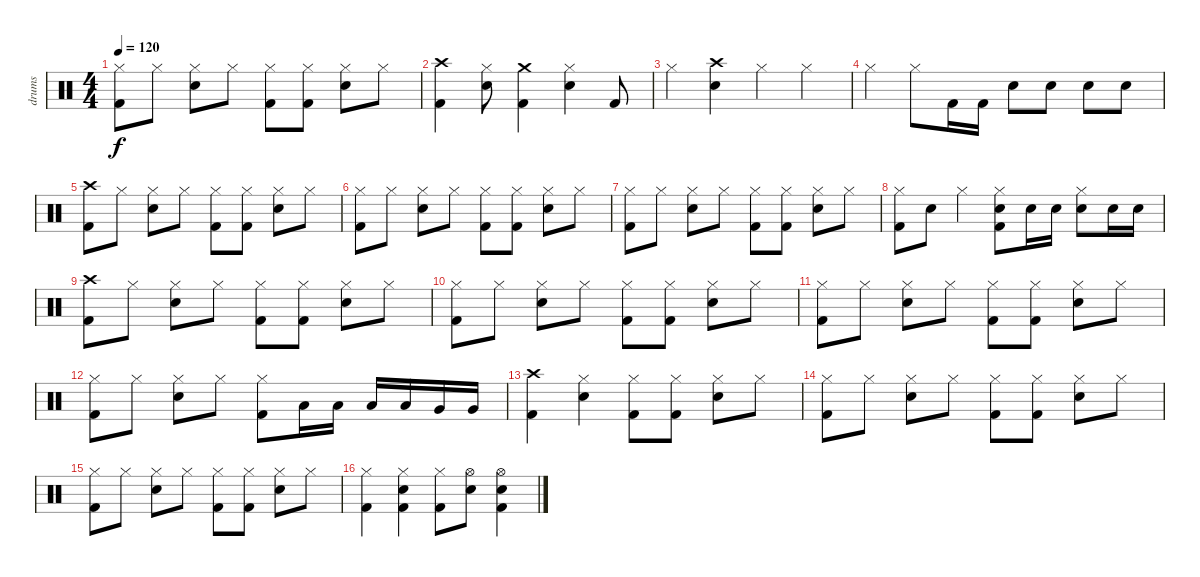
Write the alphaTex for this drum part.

\track ("drums" "drums") {instrument percussion}
\staff {score}
\articulation defaults
\ts (4 4)
\tempo 120
\clef neutral
\ks c
("Hi-Hat (closed)" "Kick (hit) 2").8{dy f} "Hi-Hat (closed)".8 ("Hi-Hat (closed)" "Electric Snare (hit)").8 "Hi-Hat (closed)".8 ("Hi-Hat (closed)" "Kick (hit) 2").8 ("Hi-Hat (closed)" "Kick (hit) 2").8 ("Hi-Hat (closed)" "Electric Snare (hit)").8 "Hi-Hat (closed)".8 |
("Crash high (hit)" "Kick (hit) 2").4 ("Hi-Hat (closed)" "Electric Snare (hit)").8 ("Crash medium (hit)" "Kick (hit) 2").4 ("Hi-Hat (closed)" "Electric Snare (hit)").4 "Kick (hit) 2".8 |
"Hi-Hat (closed)".4 ("Crash high (hit)" "Electric Snare (hit)").4 "Hi-Hat (closed)".4 "Hi-Hat (closed)".4 |
"Hi-Hat (closed)".4 "Hi-Hat (closed)".8 "Kick (hit) 2".16 "Kick (hit) 2".16 "Electric Snare (hit)".8 "Electric Snare (hit)".8 "Electric Snare (hit)".8 "Electric Snare (hit)".8 |
("Crash high (hit)" "Kick (hit) 2").8 "Hi-Hat (closed)".8 ("Hi-Hat (closed)" "Electric Snare (hit)").8 "Hi-Hat (closed)".8 ("Hi-Hat (closed)" "Kick (hit) 2").8 ("Hi-Hat (closed)" "Kick (hit) 2").8 ("Hi-Hat (closed)" "Electric Snare (hit)").8 "Hi-Hat (closed)".8 |
("Hi-Hat (closed)" "Kick (hit) 2").8 "Hi-Hat (closed)".8 ("Hi-Hat (closed)" "Electric Snare (hit)").8 "Hi-Hat (closed)".8 ("Hi-Hat (closed)" "Kick (hit) 2").8 ("Hi-Hat (closed)" "Kick (hit) 2").8 ("Hi-Hat (closed)" "Electric Snare (hit)").8 "Hi-Hat (closed)".8 |
("Hi-Hat (closed)" "Kick (hit) 2").8 "Hi-Hat (closed)".8 ("Hi-Hat (closed)" "Electric Snare (hit)").8 "Hi-Hat (closed)".8 ("Hi-Hat (closed)" "Kick (hit) 2").8 ("Hi-Hat (closed)" "Kick (hit) 2").8 ("Hi-Hat (closed)" "Electric Snare (hit)").8 "Hi-Hat (closed)".8 |
("Hi-Hat (closed)" "Kick (hit) 2").8 "Electric Snare (hit)".8 "Hi-Hat (closed)".4 ("Hi-Hat (closed)" "Electric Snare (hit)" "Kick (hit) 2").8 "Electric Snare (hit)".16 "Electric Snare (hit)".16 ("Hi-Hat (closed)" "Electric Snare (hit)").8 "Electric Snare (hit)".16 "Electric Snare (hit)".16 |
("Crash high (hit)" "Kick (hit) 2").8 "Hi-Hat (closed)".8 ("Hi-Hat (closed)" "Electric Snare (hit)").8 "Hi-Hat (closed)".8 ("Hi-Hat (closed)" "Kick (hit) 2").8 ("Hi-Hat (closed)" "Kick (hit) 2").8 ("Hi-Hat (closed)" "Electric Snare (hit)").8 "Hi-Hat (closed)".8 |
("Hi-Hat (closed)" "Kick (hit) 2").8 "Hi-Hat (closed)".8 ("Hi-Hat (closed)" "Electric Snare (hit)").8 "Hi-Hat (closed)".8 ("Hi-Hat (closed)" "Kick (hit) 2").8 ("Hi-Hat (closed)" "Kick (hit) 2").8 ("Hi-Hat (closed)" "Electric Snare (hit)").8 "Hi-Hat (closed)".8 |
("Hi-Hat (closed)" "Kick (hit) 2").8 "Hi-Hat (closed)".8 ("Hi-Hat (closed)" "Electric Snare (hit)").8 "Hi-Hat (closed)".8 ("Hi-Hat (closed)" "Kick (hit) 2").8 ("Hi-Hat (closed)" "Kick (hit) 2").8 ("Hi-Hat (closed)" "Electric Snare (hit)").8 "Hi-Hat (closed)".8 |
("Hi-Hat (closed)" "Kick (hit) 2").8 "Hi-Hat (closed)".8 ("Hi-Hat (closed)" "Electric Snare (hit)").8 "Hi-Hat (closed)".8 ("Hi-Hat (closed)" "Kick (hit) 2").8 "Low Tom (hit)".16 "Low Tom (hit)".16 "Low Tom (hit)".16 "Low Tom (hit)".16 "Very Low Tom (hit)".16 "Very Low Tom (hit)".16 |
("Crash high (hit)" "Kick (hit) 2").4 ("Hi-Hat (closed)" "Electric Snare (hit)").4 ("Hi-Hat (closed)" "Kick (hit) 2").8 ("Hi-Hat (closed)" "Kick (hit) 2").8 ("Hi-Hat (closed)" "Electric Snare (hit)").8 "Hi-Hat (closed)".8 |
("Hi-Hat (closed)" "Kick (hit) 2").8 "Hi-Hat (closed)".8 ("Hi-Hat (closed)" "Electric Snare (hit)").8 "Hi-Hat (closed)".8 ("Hi-Hat (closed)" "Kick (hit) 2").8 ("Hi-Hat (closed)" "Kick (hit) 2").8 ("Hi-Hat (closed)" "Electric Snare (hit)").8 "Hi-Hat (closed)".8 |
("Hi-Hat (closed)" "Kick (hit) 2").8 "Hi-Hat (closed)".8 ("Hi-Hat (closed)" "Electric Snare (hit)").8 "Hi-Hat (closed)".8 ("Hi-Hat (closed)" "Kick (hit) 2").8 ("Hi-Hat (closed)" "Kick (hit) 2").8 ("Hi-Hat (closed)" "Electric Snare (hit)").8 "Hi-Hat (closed)".8 |
("Hi-Hat (closed)" "Kick (hit) 2").4 ("Hi-Hat (closed)" "Electric Snare (hit)" "Kick (hit) 2").4 ("Hi-Hat (closed)" "Kick (hit) 2").8 ("Hi-Hat (open)" "Electric Snare (hit)").8 ("Hi-Hat (open)" "Electric Snare (hit)" "Kick (hit) 2").4
